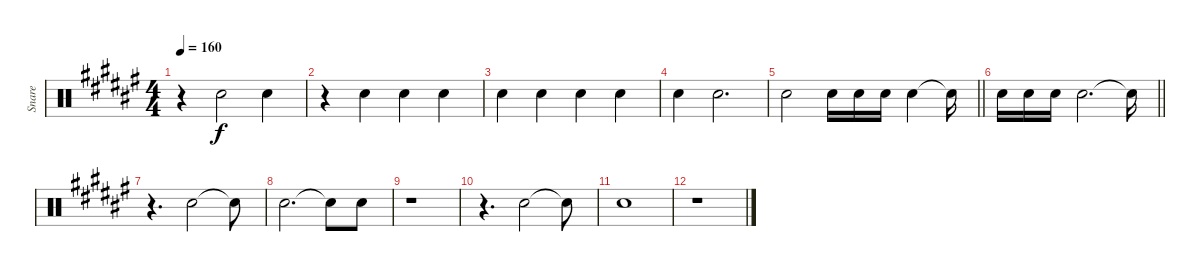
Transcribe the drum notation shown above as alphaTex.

\track ("Snare" "Snare") {instrument percussion}
\staff {score}
\articulation defaults
\ts (4 4)
\tempo 160
\clef neutral
\ks d#minor
r.4{dy f} "Electric Snare (hit)".2 "Electric Snare (hit)".4 |
r.4 "Electric Snare (hit)".4 "Electric Snare (hit)".4 "Electric Snare (hit)".4 |
"Electric Snare (hit)".4 "Electric Snare (hit)".4 "Electric Snare (hit)".4 "Electric Snare (hit)".4 |
"Electric Snare (hit)".4 "Electric Snare (hit)".2{d} |
\barLineRight lightlight "Electric Snare (hit)".2 "Electric Snare (hit)".16 "Electric Snare (hit)".16 "Electric Snare (hit)".16 "Electric Snare (hit)".4 "Electric Snare (hit)"{t}.16
|
\barLineRight lightlight "Electric Snare (hit)".16 "Electric Snare (hit)".16 "Electric Snare (hit)".16 "Electric Snare (hit)".2{d} "Electric Snare (hit)"{t}.16
|
r.4{d} "Electric Snare (hit)".2 "Electric Snare (hit)"{t}.8 |
"Electric Snare (hit)".2{d} "Electric Snare (hit)"{t}.8 "Electric Snare (hit)".8 |
r.1 |
r.4{d} "Electric Snare (hit)".2 "Electric Snare (hit)"{t}.8 |
"Electric Snare (hit)".1 |
r.1
